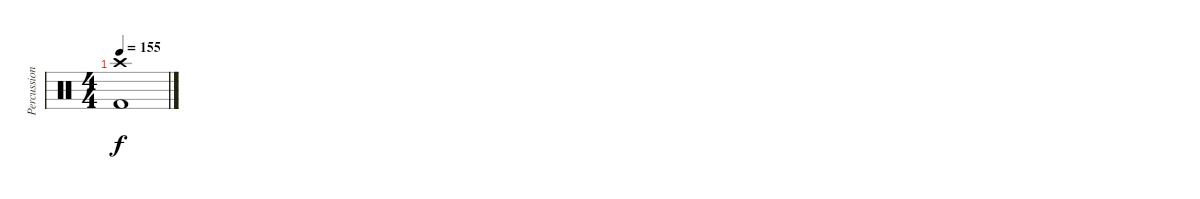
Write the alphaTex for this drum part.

\track ("Percussion" "Percussion") {instrument percussion}
\staff {score}
\articulation defaults
\ts (4 4)
\tempo 155
\clef neutral
\ks c
("Crash high (hit)" "Kick (hit) 2").1{dy f}
